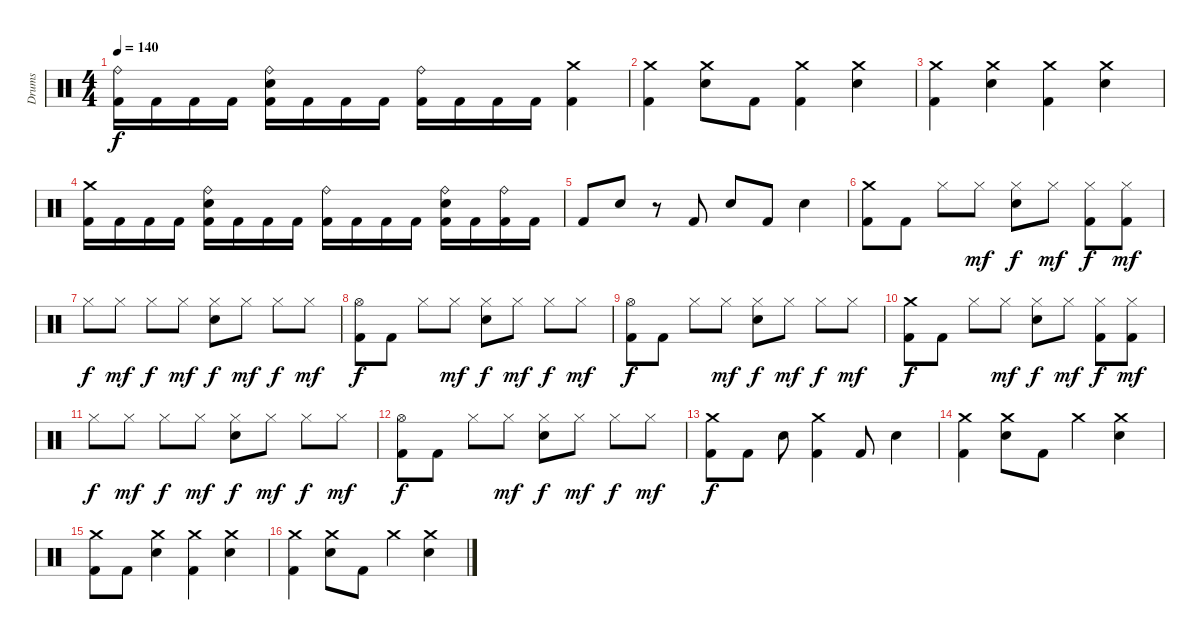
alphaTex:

\track ("Drums" "Drums") {instrument percussion}
\staff
\articulation defaults
\ts (4 4)
\tempo 140
\clef neutral
\ks c
("Ride (bell)" "Kick (hit) 2").16{dy f} "Kick (hit) 2".16 "Kick (hit) 2".16 "Kick (hit) 2".16 ("Ride (bell)" "Electric Snare (hit)" "Kick (hit) 2").16 "Kick (hit) 2".16 "Kick (hit) 2".16 "Kick (hit) 2".16 ("Ride (bell)" "Kick (hit) 2").16 "Kick (hit) 2".16 "Kick (hit) 2".16 "Kick (hit) 2".16 ("Crash medium (hit)" "Kick (hit) 2").4 |
("Crash medium (hit)" "Kick (hit) 2").4 ("Crash medium (hit)" "Electric Snare (hit)").8 "Kick (hit) 2".8 ("Crash medium (hit)" "Kick (hit) 2").4 ("Crash medium (hit)" "Electric Snare (hit)").4 |
("Crash medium (hit)" "Kick (hit) 2").4 ("Crash medium (hit)" "Electric Snare (hit)").4 ("Crash medium (hit)" "Kick (hit) 2").4 ("Crash medium (hit)" "Electric Snare (hit)").4 |
("Crash medium (hit)" "Kick (hit) 2").16 "Kick (hit) 2".16 "Kick (hit) 2".16 "Kick (hit) 2".16 ("Ride (bell)" "Electric Snare (hit)" "Kick (hit) 2").16 "Kick (hit) 2".16 "Kick (hit) 2".16 "Kick (hit) 2".16 ("Ride (bell)" "Kick (hit) 2").16 "Kick (hit) 2".16 "Kick (hit) 2".16 "Kick (hit) 2".16 ("Ride (bell)" "Electric Snare (hit)" "Kick (hit) 2").16 "Kick (hit) 2".16 ("Ride (bell)" "Kick (hit) 2").16 "Kick (hit) 2".16 |
"Kick (hit) 2".8 "Electric Snare (hit)".8 r.8 "Kick (hit) 2".8 "Electric Snare (hit)".8 "Kick (hit) 2".8 "Electric Snare (hit)".4 |
("Crash medium (hit)" "Kick (hit) 2").8 "Kick (hit) 2".8 "Hi-Hat (closed)".8 "Hi-Hat (closed)".8{dy mf} ("Hi-Hat (closed)" "Electric Snare (hit)").8{dy f} "Hi-Hat (closed)".8{dy mf} ("Hi-Hat (closed)" "Kick (hit) 2").8{dy f} ("Hi-Hat (closed)" "Kick (hit) 2").8{dy mf} |
"Hi-Hat (closed)".8{dy f} "Hi-Hat (closed)".8{dy mf} "Hi-Hat (closed)".8{dy f} "Hi-Hat (closed)".8{dy mf} ("Hi-Hat (closed)" "Electric Snare (hit)").8{dy f} "Hi-Hat (closed)".8{dy mf} "Hi-Hat (closed)".8{dy f} "Hi-Hat (closed)".8{dy mf} |
("Hi-Hat (open)" "Kick (hit) 2").8{dy f} "Kick (hit) 2".8 "Hi-Hat (closed)".8 "Hi-Hat (closed)".8{dy mf} ("Hi-Hat (closed)" "Electric Snare (hit)").8{dy f} "Hi-Hat (closed)".8{dy mf} "Hi-Hat (closed)".8{dy f} "Hi-Hat (closed)".8{dy mf} |
("Hi-Hat (open)" "Kick (hit) 2").8{dy f} "Kick (hit) 2".8 "Hi-Hat (closed)".8 "Hi-Hat (closed)".8{dy mf} ("Hi-Hat (closed)" "Electric Snare (hit)").8{dy f} "Hi-Hat (closed)".8{dy mf} "Hi-Hat (closed)".8{dy f} "Hi-Hat (closed)".8{dy mf} |
("Crash medium (hit)" "Kick (hit) 2").8{dy f} "Kick (hit) 2".8 "Hi-Hat (closed)".8 "Hi-Hat (closed)".8{dy mf} ("Hi-Hat (closed)" "Electric Snare (hit)").8{dy f} "Hi-Hat (closed)".8{dy mf} ("Hi-Hat (closed)" "Kick (hit) 2").8{dy f} ("Hi-Hat (closed)" "Kick (hit) 2").8{dy mf} |
"Hi-Hat (closed)".8{dy f} "Hi-Hat (closed)".8{dy mf} "Hi-Hat (closed)".8{dy f} "Hi-Hat (closed)".8{dy mf} ("Hi-Hat (closed)" "Electric Snare (hit)").8{dy f} "Hi-Hat (closed)".8{dy mf} "Hi-Hat (closed)".8{dy f} "Hi-Hat (closed)".8{dy mf} |
("Hi-Hat (open)" "Kick (hit) 2").8{dy f} "Kick (hit) 2".8 "Hi-Hat (closed)".8 "Hi-Hat (closed)".8{dy mf} ("Hi-Hat (closed)" "Electric Snare (hit)").8{dy f} "Hi-Hat (closed)".8{dy mf} "Hi-Hat (closed)".8{dy f} "Hi-Hat (closed)".8{dy mf} |
("Crash medium (hit)" "Kick (hit) 2").8{dy f} "Kick (hit) 2".8 "Electric Snare (hit)".8 ("Crash medium (hit)" "Kick (hit) 2").4 "Kick (hit) 2".8 "Electric Snare (hit)".4 |
("Crash medium (hit)" "Kick (hit) 2").4 ("Crash medium (hit)" "Electric Snare (hit)").8 "Kick (hit) 2".8 "Crash medium (hit)".4 ("Crash medium (hit)" "Electric Snare (hit)").4 |
("Crash medium (hit)" "Kick (hit) 2").8 "Kick (hit) 2".8 ("Crash medium (hit)" "Electric Snare (hit)").4 ("Crash medium (hit)" "Kick (hit) 2").4 ("Crash medium (hit)" "Electric Snare (hit)").4 |
("Crash medium (hit)" "Kick (hit) 2").4 ("Crash medium (hit)" "Electric Snare (hit)").8 "Kick (hit) 2".8 "Crash medium (hit)".4 ("Crash medium (hit)" "Electric Snare (hit)").4
